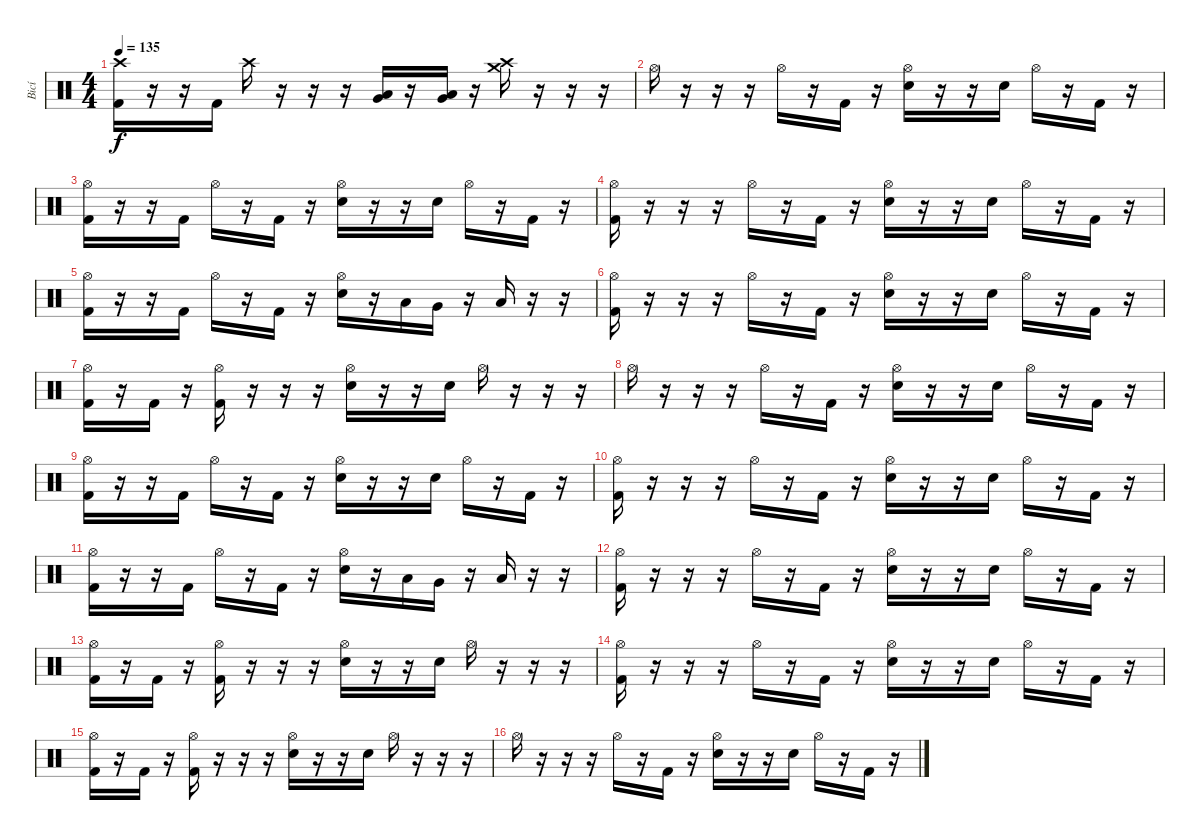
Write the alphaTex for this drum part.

\track ("Bicí" "Bicí") {instrument percussion}
\staff {score}
\articulation defaults
\ts (4 4)
\tempo 135
\clef neutral
\ks c
("Crash high (hit)" "Kick (hit) 2").16{dy f} r.16 r.16 "Kick (hit) 2".16 "Crash high (hit)".16 r.16 r.16 r.16 ("Low Tom (hit)" "Very Low Tom (hit)").16 r.16 ("Low Tom (hit)" "Very Low Tom (hit)").16 r.16 ("Crash high (hit)" "Crash medium (hit)").16 r.16 r.16 r.16 |
"Hi-Hat (open)".16 r.16 r.16 r.16 "Hi-Hat (open)".16 r.16 "Kick (hit) 2".16 r.16 ("Hi-Hat (open)" "Electric Snare (hit)").16 r.16 r.16 "Electric Snare (hit)".16 "Hi-Hat (open)".16 r.16 "Kick (hit) 2".16 r.16 |
("Hi-Hat (open)" "Kick (hit) 2").16 r.16 r.16 "Kick (hit) 2".16 "Hi-Hat (open)".16 r.16 "Kick (hit) 2".16 r.16 ("Hi-Hat (open)" "Electric Snare (hit)").16 r.16 r.16 "Electric Snare (hit)".16 "Hi-Hat (open)".16 r.16 "Kick (hit) 2".16 r.16 |
("Hi-Hat (open)" "Kick (hit) 2").16 r.16 r.16 r.16 "Hi-Hat (open)".16 r.16 "Kick (hit) 2".16 r.16 ("Hi-Hat (open)" "Electric Snare (hit)").16 r.16 r.16 "Electric Snare (hit)".16 "Hi-Hat (open)".16 r.16 "Kick (hit) 2".16 r.16 |
("Hi-Hat (open)" "Kick (hit) 2").16 r.16 r.16 "Kick (hit) 2".16 "Hi-Hat (open)".16 r.16 "Kick (hit) 2".16 r.16 ("Hi-Hat (open)" "Electric Snare (hit)").16 r.16 "Low Tom (hit)".16 "Very Low Tom (hit)".16 r.16 "Low Floor Tom (hit)".16 r.16 r.16 |
("Hi-Hat (open)" "Kick (hit) 2").16 r.16 r.16 r.16 "Hi-Hat (open)".16 r.16 "Kick (hit) 2".16 r.16 ("Hi-Hat (open)" "Electric Snare (hit)").16 r.16 r.16 "Electric Snare (hit)".16 "Hi-Hat (open)".16 r.16 "Kick (hit) 2".16 r.16 |
("Hi-Hat (open)" "Kick (hit) 2").16 r.16 "Kick (hit) 2".16 r.16 ("Hi-Hat (open)" "Kick (hit) 2").16 r.16 r.16 r.16 ("Hi-Hat (open)" "Electric Snare (hit)").16 r.16 r.16 "Electric Snare (hit)".16 "Hi-Hat (open)".16 r.16 r.16 r.16 |
"Hi-Hat (open)".16 r.16 r.16 r.16 "Hi-Hat (open)".16 r.16 "Kick (hit) 2".16 r.16 ("Hi-Hat (open)" "Electric Snare (hit)").16 r.16 r.16 "Electric Snare (hit)".16 "Hi-Hat (open)".16 r.16 "Kick (hit) 2".16 r.16 |
("Hi-Hat (open)" "Kick (hit) 2").16 r.16 r.16 "Kick (hit) 2".16 "Hi-Hat (open)".16 r.16 "Kick (hit) 2".16 r.16 ("Hi-Hat (open)" "Electric Snare (hit)").16 r.16 r.16 "Electric Snare (hit)".16 "Hi-Hat (open)".16 r.16 "Kick (hit) 2".16 r.16 |
("Hi-Hat (open)" "Kick (hit) 2").16 r.16 r.16 r.16 "Hi-Hat (open)".16 r.16 "Kick (hit) 2".16 r.16 ("Hi-Hat (open)" "Electric Snare (hit)").16 r.16 r.16 "Electric Snare (hit)".16 "Hi-Hat (open)".16 r.16 "Kick (hit) 2".16 r.16 |
("Hi-Hat (open)" "Kick (hit) 2").16 r.16 r.16 "Kick (hit) 2".16 "Hi-Hat (open)".16 r.16 "Kick (hit) 2".16 r.16 ("Hi-Hat (open)" "Electric Snare (hit)").16 r.16 "Low Tom (hit)".16 "Very Low Tom (hit)".16 r.16 "Low Floor Tom (hit)".16 r.16 r.16 |
("Hi-Hat (open)" "Kick (hit) 2").16 r.16 r.16 r.16 "Hi-Hat (open)".16 r.16 "Kick (hit) 2".16 r.16 ("Hi-Hat (open)" "Electric Snare (hit)").16 r.16 r.16 "Electric Snare (hit)".16 "Hi-Hat (open)".16 r.16 "Kick (hit) 2".16 r.16 |
("Hi-Hat (open)" "Kick (hit) 2").16 r.16 "Kick (hit) 2".16 r.16 ("Hi-Hat (open)" "Kick (hit) 2").16 r.16 r.16 r.16 ("Hi-Hat (open)" "Electric Snare (hit)").16 r.16 r.16 "Electric Snare (hit)".16 "Hi-Hat (open)".16 r.16 r.16 r.16 |
("Hi-Hat (open)" "Kick (hit) 2").16 r.16 r.16 r.16 "Hi-Hat (open)".16 r.16 "Kick (hit) 2".16 r.16 ("Hi-Hat (open)" "Electric Snare (hit)").16 r.16 r.16 "Electric Snare (hit)".16 "Hi-Hat (open)".16 r.16 "Kick (hit) 2".16 r.16 |
("Hi-Hat (open)" "Kick (hit) 2").16 r.16 "Kick (hit) 2".16 r.16 ("Hi-Hat (open)" "Kick (hit) 2").16 r.16 r.16 r.16 ("Hi-Hat (open)" "Electric Snare (hit)").16 r.16 r.16 "Electric Snare (hit)".16 "Hi-Hat (open)".16 r.16 r.16 r.16 |
"Hi-Hat (open)".16 r.16 r.16 r.16 "Hi-Hat (open)".16 r.16 "Kick (hit) 2".16 r.16 ("Hi-Hat (open)" "Electric Snare (hit)").16 r.16 r.16 "Electric Snare (hit)".16 "Hi-Hat (open)".16 r.16 "Kick (hit) 2".16 r.16
